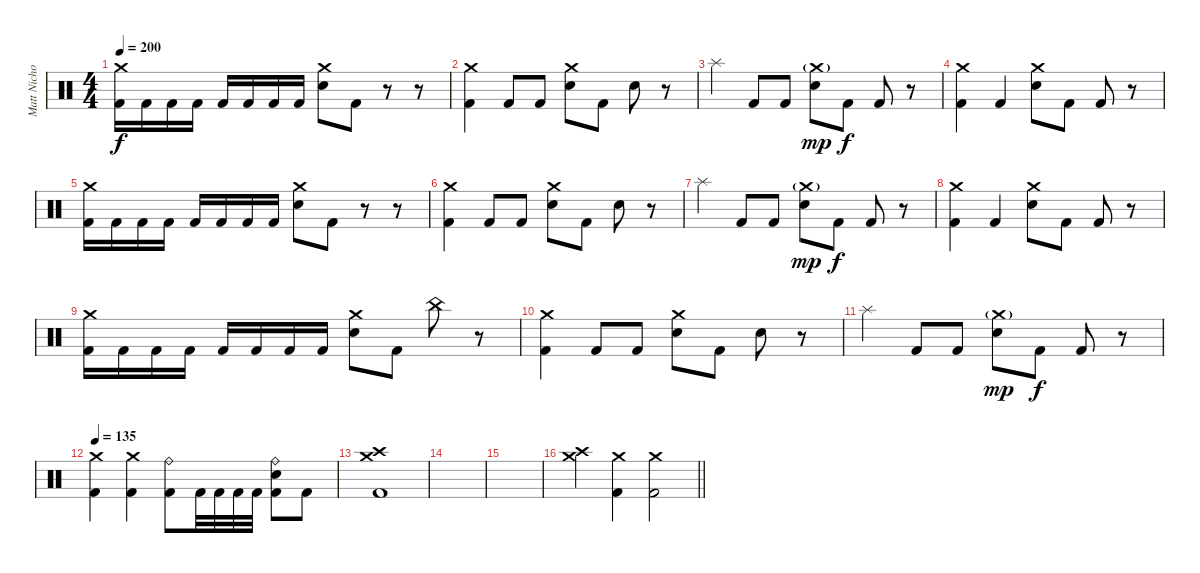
\track ("Matt Nicholls" "Matt Nicho") {instrument percussion}
\staff {score}
\articulation defaults
\ts (4 4)
\tempo 200
\clef neutral
\ks c
("Crash medium (hit)" "Kick (hit) 2").16{dy f} "Kick (hit) 2".16 "Kick (hit) 2".16 "Kick (hit) 2".16 "Kick (hit) 2".16 "Kick (hit) 2".16 "Kick (hit) 2".16 "Kick (hit) 2".16 ("Crash medium (hit)" "Snare (hit) 2").8 "Kick (hit) 2".8 r.8 r.8 |
("Crash medium (hit)" "Kick (hit) 2").4 "Kick (hit) 2".8 "Kick (hit) 2".8 ("Crash medium (hit)" "Snare (hit) 2").8 "Kick (hit) 2".8 "Snare (hit) 2".8 r.8 |
"Splash (hit)".4 "Kick (hit) 2".8 "Kick (hit) 2".8 ("Crash medium (hit)"{g} "Snare (hit) 2").8{dy mp} "Kick (hit) 2".8{dy f} "Kick (hit) 2".8 r.8 |
("Crash medium (hit)" "Kick (hit) 2").4 "Kick (hit) 2".4 ("Crash medium (hit)" "Snare (hit) 2").8 "Kick (hit) 2".8 "Kick (hit) 2".8 r.8 |
("Crash medium (hit)" "Kick (hit) 2").16 "Kick (hit) 2".16 "Kick (hit) 2".16 "Kick (hit) 2".16 "Kick (hit) 2".16 "Kick (hit) 2".16 "Kick (hit) 2".16 "Kick (hit) 2".16 ("Crash medium (hit)" "Snare (hit) 2").8 "Kick (hit) 2".8 r.8 r.8 |
("Crash medium (hit)" "Kick (hit) 2").4 "Kick (hit) 2".8 "Kick (hit) 2".8 ("Crash medium (hit)" "Snare (hit) 2").8 "Kick (hit) 2".8 "Snare (hit) 2".8 r.8 |
"Splash (hit)".4 "Kick (hit) 2".8 "Kick (hit) 2".8 ("Crash medium (hit)"{g} "Snare (hit) 2").8{dy mp} "Kick (hit) 2".8{dy f} "Kick (hit) 2".8 r.8 |
("Crash medium (hit)" "Kick (hit) 2").4 "Kick (hit) 2".4 ("Crash medium (hit)" "Snare (hit) 2").8 "Kick (hit) 2".8 "Kick (hit) 2".8 r.8 |
("Crash medium (hit)" "Kick (hit) 2").16 "Kick (hit) 2".16 "Kick (hit) 2".16 "Kick (hit) 2".16 "Kick (hit) 2".16 "Kick (hit) 2".16 "Kick (hit) 2".16 "Kick (hit) 2".16 ("Crash medium (hit)" "Snare (hit) 2").8 "Kick (hit) 2".8 "China (hit)".8 r.8 |
("Crash medium (hit)" "Kick (hit) 2").4 "Kick (hit) 2".8 "Kick (hit) 2".8 ("Crash medium (hit)" "Snare (hit) 2").8 "Kick (hit) 2".8 "Snare (hit) 2".8 r.8 |
"Splash (hit)".4 "Kick (hit) 2".8 "Kick (hit) 2".8 ("Crash medium (hit)"{g} "Snare (hit) 2").8{dy mp} "Kick (hit) 2".8{dy f} "Kick (hit) 2".8 r.8 |
\tempo 135
("Crash medium (hit)" "Kick (hit) 2").4 ("Crash medium (hit)" "Kick (hit) 2").4 ("Ride (bell)" "Kick (hit) 2").8 "Kick (hit) 2".32 "Kick (hit) 2".32 "Kick (hit) 2".32 "Kick (hit) 2".32 ("Ride (bell)" "Snare (hit) 2" "Kick (hit) 2").8 "Kick (hit) 2".8 |
("Crash high (hit)" "Crash medium (hit)" "Kick (hit) 2").1 |
|
|
\barLineRight lightlight
("Crash medium (hit)" "Crash high (hit)").4{volume 12} ("Crash medium (hit)" "Kick (hit) 2").4 ("Crash medium (hit)" "Kick (hit) 2").2
